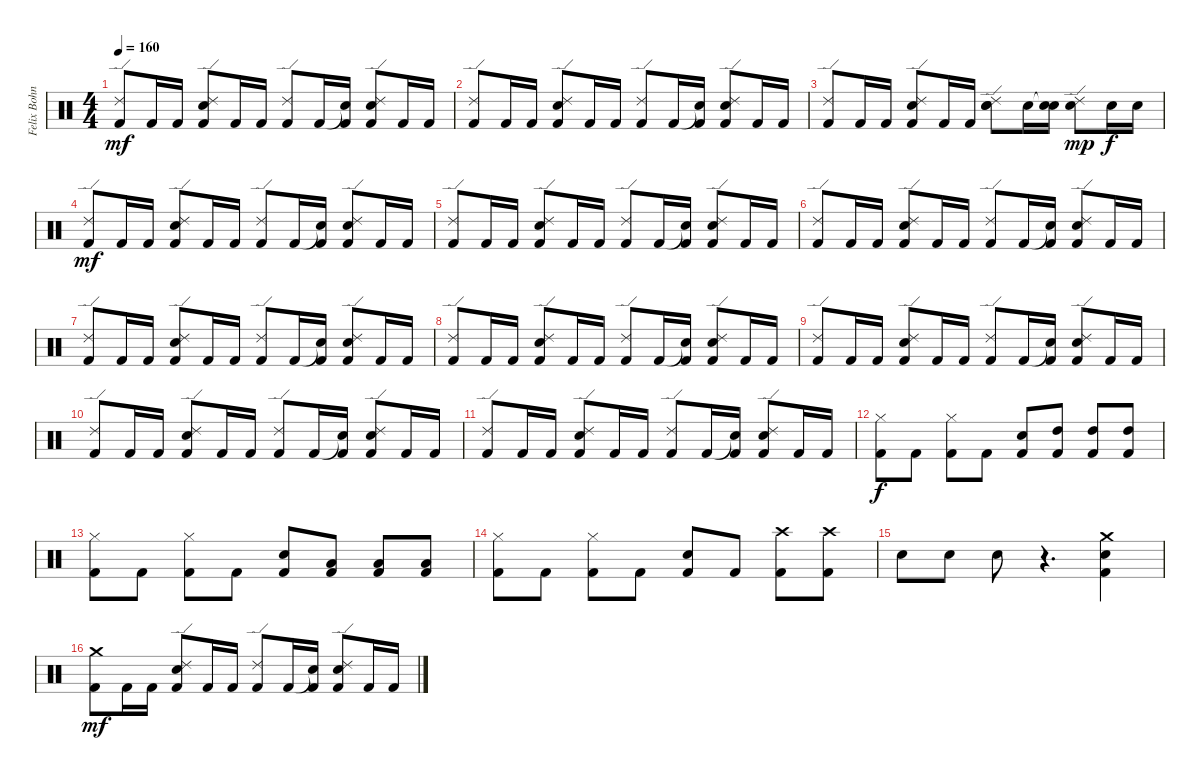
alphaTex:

\track ("Felix Bohnke" "Felix Bohn") {instrument percussion}
\staff {score}
\articulation defaults
\ts (4 4)
\tempo 160
\clef neutral
\ks c
("Ride (edge) 2" "Kick (hit) 2").8{dy mf} "Kick (hit) 2".16 "Kick (hit) 2".16 ("Ride (edge) 2" "Electric Snare (hit)" "Kick (hit) 2").8 "Kick (hit) 2".16 "Kick (hit) 2".16 ("Ride (edge) 2" "Kick (hit) 2").8 "Kick (hit) 2".16 ("Snare (hit)"{t} "Kick (hit) 2").16 ("Ride (edge) 2" "Electric Snare (hit)" "Kick (hit) 2").8 "Kick (hit) 2".16 "Kick (hit) 2".16 |
("Ride (edge) 2" "Kick (hit) 2").8 "Kick (hit) 2".16 "Kick (hit) 2".16 ("Ride (edge) 2" "Electric Snare (hit)" "Kick (hit) 2").8 "Kick (hit) 2".16 "Kick (hit) 2".16 ("Ride (edge) 2" "Kick (hit) 2").8 "Kick (hit) 2".16 ("Snare (hit)"{t} "Kick (hit) 2").16 ("Ride (edge) 2" "Electric Snare (hit)" "Kick (hit) 2").8 "Kick (hit) 2".16 "Kick (hit) 2".16 |
("Ride (edge) 2" "Kick (hit) 2").8 "Kick (hit) 2".16 "Kick (hit) 2".16 ("Ride (edge) 2" "Electric Snare (hit)" "Kick (hit) 2").8 "Kick (hit) 2".16 "Kick (hit) 2".16 ("Ride (edge) 2" "Electric Snare (hit)" "Electric Snare (hit)").8 "Electric Snare (hit)".16 ("Snare (hit)"{t} "Electric Snare (hit)").16 ("Ride (edge) 2" "Electric Snare (hit)").8{dy mp} "Electric Snare (hit)".16{dy f} "Electric Snare (hit)".16 |
("Ride (edge) 2" "Kick (hit) 2").8{dy mf} "Kick (hit) 2".16 "Kick (hit) 2".16 ("Ride (edge) 2" "Electric Snare (hit)" "Kick (hit) 2").8 "Kick (hit) 2".16 "Kick (hit) 2".16 ("Ride (edge) 2" "Kick (hit) 2").8 "Kick (hit) 2".16 ("Snare (hit)"{t} "Kick (hit) 2").16 ("Ride (edge) 2" "Electric Snare (hit)" "Kick (hit) 2").8 "Kick (hit) 2".16 "Kick (hit) 2".16 |
("Ride (edge) 2" "Kick (hit) 2").8 "Kick (hit) 2".16 "Kick (hit) 2".16 ("Ride (edge) 2" "Electric Snare (hit)" "Kick (hit) 2").8 "Kick (hit) 2".16 "Kick (hit) 2".16 ("Ride (edge) 2" "Kick (hit) 2").8 "Kick (hit) 2".16 ("Snare (hit)"{t} "Kick (hit) 2").16 ("Ride (edge) 2" "Electric Snare (hit)" "Kick (hit) 2").8 "Kick (hit) 2".16 "Kick (hit) 2".16 |
("Ride (edge) 2" "Kick (hit) 2").8 "Kick (hit) 2".16 "Kick (hit) 2".16 ("Ride (edge) 2" "Electric Snare (hit)" "Kick (hit) 2").8 "Kick (hit) 2".16 "Kick (hit) 2".16 ("Ride (edge) 2" "Kick (hit) 2").8 "Kick (hit) 2".16 ("Snare (hit)"{t} "Kick (hit) 2").16 ("Ride (edge) 2" "Electric Snare (hit)" "Kick (hit) 2").8 "Kick (hit) 2".16 "Kick (hit) 2".16 |
("Ride (edge) 2" "Kick (hit) 2").8 "Kick (hit) 2".16 "Kick (hit) 2".16 ("Ride (edge) 2" "Electric Snare (hit)" "Kick (hit) 2").8 "Kick (hit) 2".16 "Kick (hit) 2".16 ("Ride (edge) 2" "Kick (hit) 2").8 "Kick (hit) 2".16 ("Snare (hit)"{t} "Kick (hit) 2").16 ("Ride (edge) 2" "Electric Snare (hit)" "Kick (hit) 2").8 "Kick (hit) 2".16 "Kick (hit) 2".16 |
("Ride (edge) 2" "Kick (hit) 2").8 "Kick (hit) 2".16 "Kick (hit) 2".16 ("Ride (edge) 2" "Electric Snare (hit)" "Kick (hit) 2").8 "Kick (hit) 2".16 "Kick (hit) 2".16 ("Ride (edge) 2" "Kick (hit) 2").8 "Kick (hit) 2".16 ("Snare (hit)"{t} "Kick (hit) 2").16 ("Ride (edge) 2" "Electric Snare (hit)" "Kick (hit) 2").8 "Kick (hit) 2".16 "Kick (hit) 2".16 |
("Ride (edge) 2" "Kick (hit) 2").8 "Kick (hit) 2".16 "Kick (hit) 2".16 ("Ride (edge) 2" "Electric Snare (hit)" "Kick (hit) 2").8 "Kick (hit) 2".16 "Kick (hit) 2".16 ("Ride (edge) 2" "Kick (hit) 2").8 "Kick (hit) 2".16 ("Snare (hit)"{t} "Kick (hit) 2").16 ("Ride (edge) 2" "Electric Snare (hit)" "Kick (hit) 2").8 "Kick (hit) 2".16 "Kick (hit) 2".16 |
("Ride (edge) 2" "Kick (hit) 2").8 "Kick (hit) 2".16 "Kick (hit) 2".16 ("Ride (edge) 2" "Electric Snare (hit)" "Kick (hit) 2").8 "Kick (hit) 2".16 "Kick (hit) 2".16 ("Ride (edge) 2" "Kick (hit) 2").8 "Kick (hit) 2".16 ("Snare (hit)"{t} "Kick (hit) 2").16 ("Ride (edge) 2" "Electric Snare (hit)" "Kick (hit) 2").8 "Kick (hit) 2".16 "Kick (hit) 2".16 |
("Ride (edge) 2" "Kick (hit) 2").8 "Kick (hit) 2".16 "Kick (hit) 2".16 ("Ride (edge) 2" "Electric Snare (hit)" "Kick (hit) 2").8 "Kick (hit) 2".16 "Kick (hit) 2".16 ("Ride (edge) 2" "Kick (hit) 2").8 "Kick (hit) 2".16 ("Snare (hit)"{t} "Kick (hit) 2").16 ("Ride (edge) 2" "Electric Snare (hit)" "Kick (hit) 2").8 "Kick (hit) 2".16 "Kick (hit) 2".16 |
("Hi-Hat (closed)" "Kick (hit) 2").8{dy f} "Kick (hit) 2".8 ("Hi-Hat (closed)" "Kick (hit) 2").8 "Kick (hit) 2".8 ("Electric Snare (hit)" "Kick (hit) 2").8 ("High Tom (hit)" "Kick (hit) 2").8 ("High Tom (hit)" "Kick (hit) 2").8 ("High Tom (hit)" "Kick (hit) 2").8 |
("Hi-Hat (closed)" "Kick (hit) 2").8 "Kick (hit) 2".8 ("Hi-Hat (closed)" "Kick (hit) 2").8 "Kick (hit) 2".8 ("Electric Snare (hit)" "Kick (hit) 2").8 ("Low Tom (hit)" "Kick (hit) 2").8 ("Low Tom (hit)" "Kick (hit) 2").8 ("Low Tom (hit)" "Kick (hit) 2").8 |
("Hi-Hat (closed)" "Kick (hit) 2").8 "Kick (hit) 2".8 ("Hi-Hat (closed)" "Kick (hit) 2").8 "Kick (hit) 2".8 ("Electric Snare (hit)" "Kick (hit) 2").8 "Kick (hit) 2".8 ("Crash high (hit)" "Kick (hit) 2").8 ("Crash high (hit)" "Kick (hit) 2").8 |
"Electric Snare (hit)".8 "Electric Snare (hit)".8 "Electric Snare (hit)".8 r.4{d} ("Crash medium (hit)" "Electric Snare (hit)" "Kick (hit) 2").4 |
("Crash medium (hit)" "Kick (hit) 2").8{dy mf} "Kick (hit) 2".16 "Kick (hit) 2".16 ("Ride (edge) 2" "Electric Snare (hit)" "Kick (hit) 2").8 "Kick (hit) 2".16 "Kick (hit) 2".16 ("Ride (edge) 2" "Kick (hit) 2").8 "Kick (hit) 2".16 ("Snare (hit)"{t} "Kick (hit) 2").16 ("Ride (edge) 2" "Electric Snare (hit)" "Kick (hit) 2").8 "Kick (hit) 2".16 "Kick (hit) 2".16
